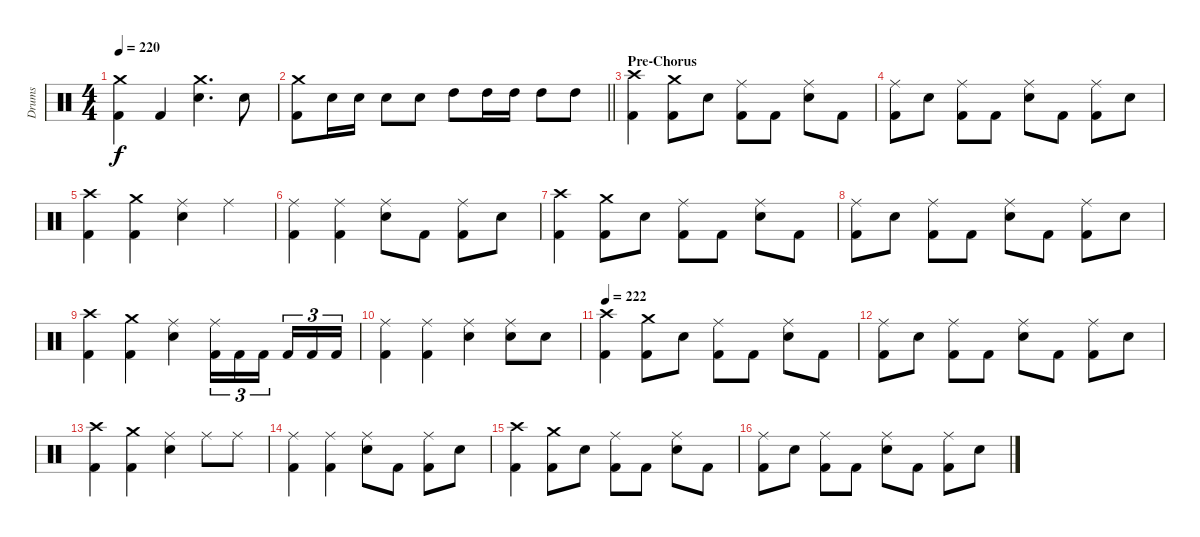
\track ("Drums" "Drums") {instrument percussion}
\staff {score}
\articulation defaults
\ts (4 4)
\tempo 220
\clef neutral
\ks c
("Crash medium (hit)" "Kick (hit) 2").4{dy f} "Kick (hit) 2".4 ("Crash medium (hit)" "Snare (hit) 2").4{d} "Snare (hit) 2".8 |
\barLineRight lightlight
("Crash medium (hit)" "Kick (hit) 2").8 "Snare (hit) 2".16 "Snare (hit) 2".16 "Snare (hit) 2".8 "Snare (hit) 2".8 "High Tom (hit)".8 "High Tom (hit)".16 "High Tom (hit)".16 "High Tom (hit)".8 "High Tom (hit)".8 |
\section ("" "Pre-Chorus")
("Crash high (hit)" "Kick (hit) 2").4 ("Crash medium (hit)" "Kick (hit) 2").8 "Snare (hit) 2".8 ("Ride (middle)" "Kick (hit) 2").8 "Kick (hit) 2".8 ("Ride (middle)" "Snare (hit) 2").8 "Kick (hit) 2".8 |
("Ride (middle)" "Kick (hit) 2").8 "Snare (hit) 2".8 ("Ride (middle)" "Kick (hit) 2").8 "Kick (hit) 2".8 ("Ride (middle)" "Snare (hit) 2").8 "Kick (hit) 2".8 ("Ride (middle)" "Kick (hit) 2").8 "Snare (hit) 2".8 |
("Crash high (hit)" "Kick (hit) 2").4 ("Crash medium (hit)" "Kick (hit) 2").4 ("Ride (middle)" "Snare (hit) 2").4 "Ride (middle)".4 |
("Ride (middle)" "Kick (hit) 2").4 ("Ride (middle)" "Kick (hit) 2").4 ("Ride (middle)" "Snare (hit) 2").8 "Kick (hit) 2".8 ("Ride (middle)" "Kick (hit) 2").8 "Snare (hit) 2".8 |
("Crash high (hit)" "Kick (hit) 2").4 ("Crash medium (hit)" "Kick (hit) 2").8 "Snare (hit) 2".8 ("Ride (middle)" "Kick (hit) 2").8 "Kick (hit) 2".8 ("Ride (middle)" "Snare (hit) 2").8 "Kick (hit) 2".8 |
("Ride (middle)" "Kick (hit) 2").8 "Snare (hit) 2".8 ("Ride (middle)" "Kick (hit) 2").8 "Kick (hit) 2".8 ("Ride (middle)" "Snare (hit) 2").8 "Kick (hit) 2".8 ("Ride (middle)" "Kick (hit) 2").8 "Snare (hit) 2".8 |
("Crash high (hit)" "Kick (hit) 2").4 ("Crash medium (hit)" "Kick (hit) 2").4 ("Ride (middle)" "Snare (hit) 2").4 ("Ride (middle)" "Kick (hit) 2").16{tu (3 2)} "Kick (hit) 2".16{tu (3 2)} "Kick (hit) 2".16{tu (3 2) beam splitsecondary} "Kick (hit) 2".16{tu (3 2)} "Kick (hit) 2".16{tu (3 2)} "Kick (hit) 2".16{tu (3 2)} |
("Ride (middle)" "Kick (hit) 2").4 ("Ride (middle)" "Kick (hit) 2").4 ("Ride (middle)" "Snare (hit) 2").4 ("Ride (middle)" "Snare (hit) 2").8 "Snare (hit) 2".8 |
\tempo 222
("Crash high (hit)" "Kick (hit) 2").4 ("Crash medium (hit)" "Kick (hit) 2").8 "Snare (hit) 2".8 ("Ride (middle)" "Kick (hit) 2").8 "Kick (hit) 2".8 ("Ride (middle)" "Snare (hit) 2").8 "Kick (hit) 2".8 |
("Ride (middle)" "Kick (hit) 2").8 "Snare (hit) 2".8 ("Ride (middle)" "Kick (hit) 2").8 "Kick (hit) 2".8 ("Ride (middle)" "Snare (hit) 2").8 "Kick (hit) 2".8 ("Ride (middle)" "Kick (hit) 2").8 "Snare (hit) 2".8 |
("Crash high (hit)" "Kick (hit) 2").4 ("Crash medium (hit)" "Kick (hit) 2").4 ("Ride (middle)" "Snare (hit) 2").4 "Ride (middle)".8 "Ride (middle)".8 |
("Ride (middle)" "Kick (hit) 2").4 ("Ride (middle)" "Kick (hit) 2").4 ("Ride (middle)" "Snare (hit) 2").8 "Kick (hit) 2".8 ("Ride (middle)" "Kick (hit) 2").8 "Snare (hit) 2".8 |
("Crash high (hit)" "Kick (hit) 2").4 ("Crash medium (hit)" "Kick (hit) 2").8 "Snare (hit) 2".8 ("Ride (middle)" "Kick (hit) 2").8 "Kick (hit) 2".8 ("Ride (middle)" "Snare (hit) 2").8 "Kick (hit) 2".8 |
("Ride (middle)" "Kick (hit) 2").8 "Snare (hit) 2".8 ("Ride (middle)" "Kick (hit) 2").8 "Kick (hit) 2".8 ("Ride (middle)" "Snare (hit) 2").8 "Kick (hit) 2".8 ("Ride (middle)" "Kick (hit) 2").8 "Snare (hit) 2".8
